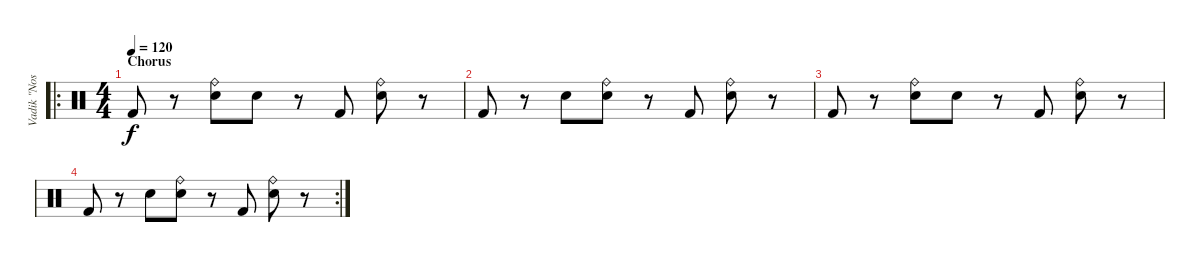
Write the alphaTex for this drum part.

\track ("Vadik \"Nos\"" "Vadik \"Nos") {instrument percussion}
\staff {score}
\articulation defaults
\ro
\ts (4 4)
\section ("" "Chorus")
\tempo 120
\clef neutral
\ks c "Kick (hit) 2".8{dy f}
r.8 ("Snare (hit) 2" "Ride (bell)").8 "Snare (hit) 2".8 r.8 "Kick (hit) 2".8 ("Snare (hit) 2" "Ride (bell)").8 r.8 |
"Kick (hit) 2".8 r.8 "Snare (hit) 2".8 ("Snare (hit) 2" "Ride (bell)").8 r.8 "Kick (hit) 2".8 ("Snare (hit) 2" "Ride (bell)").8 r.8 |
"Kick (hit) 2".8 r.8 ("Snare (hit) 2" "Ride (bell)").8 "Snare (hit) 2".8 r.8 "Kick (hit) 2".8 ("Snare (hit) 2" "Ride (bell)").8 r.8 |
\rc 2 "Kick (hit) 2".8
r.8 "Snare (hit) 2".8 ("Snare (hit) 2" "Ride (bell)").8 r.8 "Kick (hit) 2".8 ("Snare (hit) 2" "Ride (bell)").8 r.8
